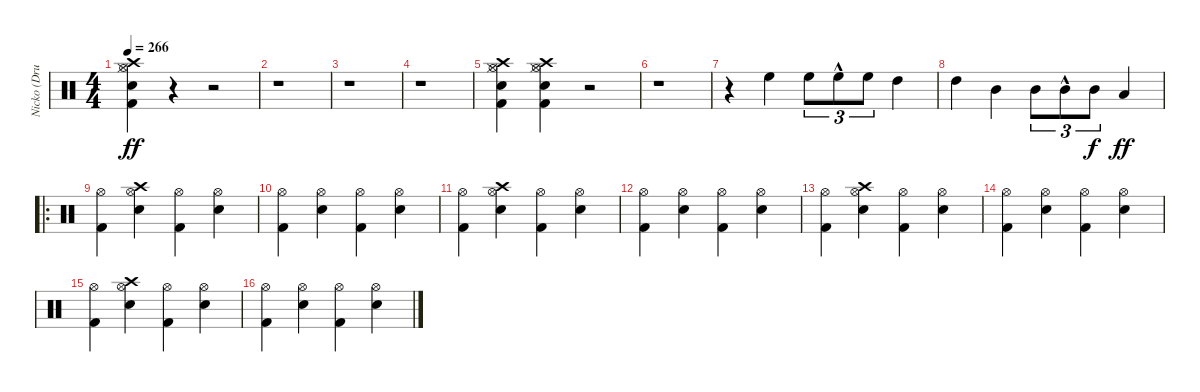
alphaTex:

\track ("Nicko (Drums)" "Nicko (Dru") {instrument percussion}
\staff {score}
\articulation defaults
\ts (4 4)
\tempo 266
\clef neutral
\ks c
("Kick (hit) 2" "Snare (hit) 2" "Hi-Hat (closed)" "Hi-Hat (open)" "Crash high (hit)").4{dy ff} r.4 r.2 |
r.1 |
r.1 |
r.1 |
("Kick (hit) 2" "Snare (hit) 2" "Hi-Hat (closed)" "Hi-Hat (open)" "Crash high (hit)").4 ("Kick (hit) 2" "Snare (hit) 2" "Hi-Hat (closed)" "Hi-Hat (open)" "Crash high (hit)").4 r.2 |
r.1 |
r.4 "High Floor Tom (hit)".4 "High Floor Tom (hit)".8{tu (3 2)} "High Floor Tom (hit)"{hac}.8{tu (3 2)} "High Floor Tom (hit)".8{tu (3 2)} "High Tom (hit)".4 |
"High Tom (hit)".4 "Mid Tom (hit)".4 "Mid Tom (hit)".8{tu (3 2)} "Mid Tom (hit)"{hac}.8{tu (3 2)} "Mid Tom (hit)".8{tu (3 2) dy f} "Low Tom (hit)".4{dy ff} |
\ro
("Kick (hit) 2" "Hi-Hat (open)").4 ("Snare (hit) 2" "Hi-Hat (open)" "Crash high (hit)").4 ("Kick (hit) 2" "Hi-Hat (open)").4 ("Snare (hit) 2" "Hi-Hat (open)").4 |
("Kick (hit) 2" "Hi-Hat (open)").4 ("Snare (hit) 2" "Hi-Hat (open)").4 ("Kick (hit) 2" "Hi-Hat (open)").4 ("Snare (hit) 2" "Hi-Hat (open)").4 |
("Kick (hit) 2" "Hi-Hat (open)").4 ("Snare (hit) 2" "Hi-Hat (open)" "Crash high (hit)").4 ("Kick (hit) 2" "Hi-Hat (open)").4 ("Snare (hit) 2" "Hi-Hat (open)").4 |
("Kick (hit) 2" "Hi-Hat (open)").4 ("Snare (hit) 2" "Hi-Hat (open)").4 ("Kick (hit) 2" "Hi-Hat (open)").4 ("Snare (hit) 2" "Hi-Hat (open)").4 |
("Kick (hit) 2" "Hi-Hat (open)").4 ("Snare (hit) 2" "Hi-Hat (open)" "Crash high (hit)").4 ("Kick (hit) 2" "Hi-Hat (open)").4 ("Snare (hit) 2" "Hi-Hat (open)").4 |
("Kick (hit) 2" "Hi-Hat (open)").4 ("Snare (hit) 2" "Hi-Hat (open)").4 ("Kick (hit) 2" "Hi-Hat (open)").4 ("Snare (hit) 2" "Hi-Hat (open)").4 |
("Kick (hit) 2" "Hi-Hat (open)").4 ("Snare (hit) 2" "Hi-Hat (open)" "Crash high (hit)").4 ("Kick (hit) 2" "Hi-Hat (open)").4 ("Snare (hit) 2" "Hi-Hat (open)").4 |
("Kick (hit) 2" "Hi-Hat (open)").4 ("Snare (hit) 2" "Hi-Hat (open)").4 ("Kick (hit) 2" "Hi-Hat (open)").4 ("Snare (hit) 2" "Hi-Hat (open)").4
